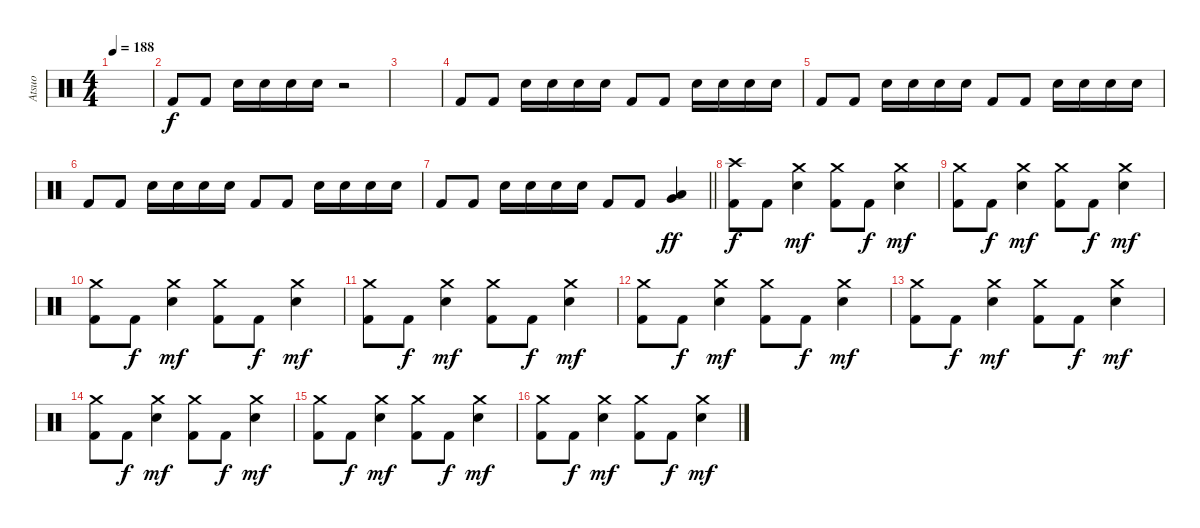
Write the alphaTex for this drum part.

\track ("Atsuo" "Atsuo") {instrument percussion}
\staff {score}
\articulation defaults
\ts (4 4)
\tempo 188
\clef neutral
\ks c
|
"Kick (hit) 2".8 "Kick (hit) 2".8 "Electric Snare (hit)".16 "Electric Snare (hit)".16 "Electric Snare (hit)".16 "Electric Snare (hit)".16 r.2 |
|
"Kick (hit) 2".8 "Kick (hit) 2".8 "Electric Snare (hit)".16 "Electric Snare (hit)".16 "Electric Snare (hit)".16 "Electric Snare (hit)".16 "Kick (hit) 2".8 "Kick (hit) 2".8 "Electric Snare (hit)".16 "Electric Snare (hit)".16 "Electric Snare (hit)".16 "Electric Snare (hit)".16 |
"Kick (hit) 2".8 "Kick (hit) 2".8 "Electric Snare (hit)".16 "Electric Snare (hit)".16 "Electric Snare (hit)".16 "Electric Snare (hit)".16 "Kick (hit) 2".8 "Kick (hit) 2".8 "Electric Snare (hit)".16 "Electric Snare (hit)".16 "Electric Snare (hit)".16 "Electric Snare (hit)".16 |
"Kick (hit) 2".8 "Kick (hit) 2".8 "Electric Snare (hit)".16 "Electric Snare (hit)".16 "Electric Snare (hit)".16 "Electric Snare (hit)".16 "Kick (hit) 2".8 "Kick (hit) 2".8 "Electric Snare (hit)".16 "Electric Snare (hit)".16 "Electric Snare (hit)".16 "Electric Snare (hit)".16 |
\barLineRight lightlight "Kick (hit) 2".8 "Kick (hit) 2".8 "Electric Snare (hit)".16 "Electric Snare (hit)".16 "Electric Snare (hit)".16 "Electric Snare (hit)".16 "Kick (hit) 2".8 "Kick (hit) 2".8
("Very Low Tom (hit)" "Low Floor Tom (hit)").4{dy ff} |
\section ("" "")
("Crash high (hit)" "Kick (hit) 2").8{dy f} "Kick (hit) 2".8 ("Crash medium (hit)" "Electric Snare (hit)").4{dy mf} ("Crash medium (hit)" "Kick (hit) 2").8 "Kick (hit) 2".8{dy f} ("Crash medium (hit)" "Electric Snare (hit)").4{dy mf} |
("Crash medium (hit)" "Kick (hit) 2").8 "Kick (hit) 2".8{dy f} ("Crash medium (hit)" "Electric Snare (hit)").4{dy mf} ("Crash medium (hit)" "Kick (hit) 2").8 "Kick (hit) 2".8{dy f} ("Crash medium (hit)" "Electric Snare (hit)").4{dy mf} |
("Crash medium (hit)" "Kick (hit) 2").8 "Kick (hit) 2".8{dy f} ("Crash medium (hit)" "Electric Snare (hit)").4{dy mf} ("Crash medium (hit)" "Kick (hit) 2").8 "Kick (hit) 2".8{dy f} ("Crash medium (hit)" "Electric Snare (hit)").4{dy mf} |
("Crash medium (hit)" "Kick (hit) 2").8 "Kick (hit) 2".8{dy f} ("Crash medium (hit)" "Electric Snare (hit)").4{dy mf} ("Crash medium (hit)" "Kick (hit) 2").8 "Kick (hit) 2".8{dy f} ("Crash medium (hit)" "Electric Snare (hit)").4{dy mf} |
("Crash medium (hit)" "Kick (hit) 2").8 "Kick (hit) 2".8{dy f} ("Crash medium (hit)" "Electric Snare (hit)").4{dy mf} ("Crash medium (hit)" "Kick (hit) 2").8 "Kick (hit) 2".8{dy f} ("Crash medium (hit)" "Electric Snare (hit)").4{dy mf} |
("Crash medium (hit)" "Kick (hit) 2").8 "Kick (hit) 2".8{dy f} ("Crash medium (hit)" "Electric Snare (hit)").4{dy mf} ("Crash medium (hit)" "Kick (hit) 2").8 "Kick (hit) 2".8{dy f} ("Crash medium (hit)" "Electric Snare (hit)").4{dy mf} |
("Crash medium (hit)" "Kick (hit) 2").8 "Kick (hit) 2".8{dy f} ("Crash medium (hit)" "Electric Snare (hit)").4{dy mf} ("Crash medium (hit)" "Kick (hit) 2").8 "Kick (hit) 2".8{dy f} ("Crash medium (hit)" "Electric Snare (hit)").4{dy mf} |
("Crash medium (hit)" "Kick (hit) 2").8 "Kick (hit) 2".8{dy f} ("Crash medium (hit)" "Electric Snare (hit)").4{dy mf} ("Crash medium (hit)" "Kick (hit) 2").8 "Kick (hit) 2".8{dy f} ("Crash medium (hit)" "Electric Snare (hit)").4{dy mf} |
("Crash medium (hit)" "Kick (hit) 2").8 "Kick (hit) 2".8{dy f} ("Crash medium (hit)" "Electric Snare (hit)").4{dy mf} ("Crash medium (hit)" "Kick (hit) 2").8 "Kick (hit) 2".8{dy f} ("Crash medium (hit)" "Electric Snare (hit)").4{dy mf}
